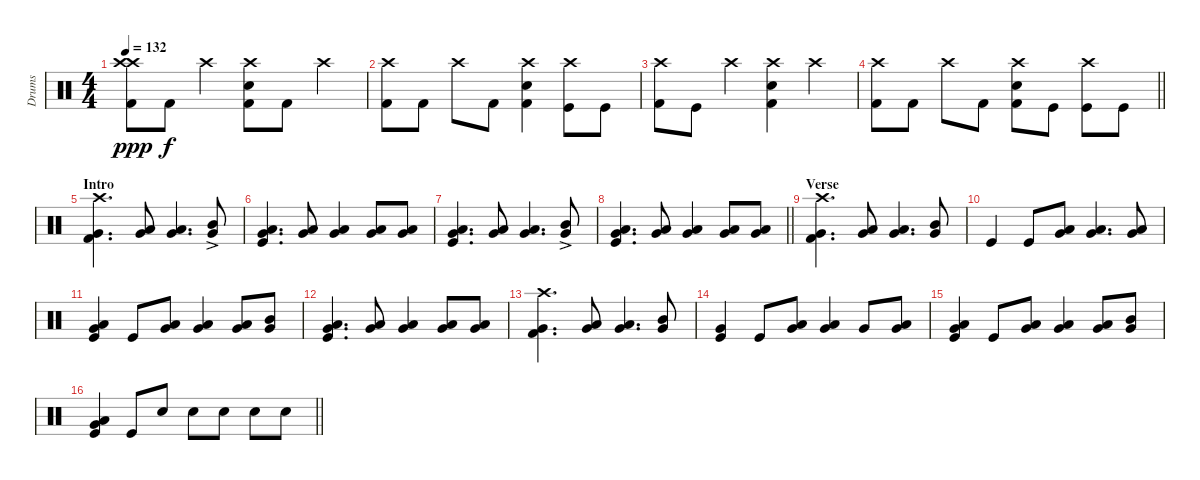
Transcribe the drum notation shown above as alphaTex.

\track ("Drums" "Drums") {instrument percussion}
\staff {score}
\articulation defaults
\ts (4 4)
\tempo 132
\clef neutral
\ks c
("Crash high (hit)" "Crash high (hit)" "Kick (hit) 2").8{dy ppp} "Kick (hit) 2".8{dy f} "Crash high (hit)".4 ("Crash high (hit)" "Electric Snare (hit)" "Kick (hit) 2").8 "Kick (hit) 2".8 "Crash high (hit)".4 |
("Crash high (hit)" "Kick (hit) 2").8 "Kick (hit) 2".8 "Crash high (hit)".8 "Kick (hit) 2".8 ("Crash high (hit)" "Electric Snare (hit)" "Kick (hit) 2").4 ("Crash high (hit)" "Kick (hit)").8 "Kick (hit)".8 |
("Crash high (hit)" "Kick (hit) 2").8 "Kick (hit)".8 "Crash high (hit)".4 ("Crash high (hit)" "Electric Snare (hit)" "Kick (hit) 2").4 "Crash high (hit)".4 |
\barLineRight lightlight
("Crash high (hit)" "Kick (hit) 2").8 "Kick (hit) 2".8 "Crash high (hit)".8 "Kick (hit) 2".8 ("Crash high (hit)" "Electric Snare (hit)" "Kick (hit) 2").8 "Kick (hit)".8 ("Kick (hit)" "Crash high (hit)").8 "Kick (hit)".8 |
\section ("" "Intro")
("Crash high (hit)" "Very Low Tom (hit)" "Kick (hit) 2").4{d} ("Very Low Tom (hit)" "Low Tom (hit)").8 ("Low Tom (hit)" "Very Low Tom (hit)").4{d} ("Very Low Tom (hit)"{ac} "Mid Tom (hit)"{ac}).8 |
("Very Low Tom (hit)" "Low Tom (hit)" "Kick (hit)").4{d} ("Very Low Tom (hit)" "Low Tom (hit)").8 ("Low Tom (hit)" "Very Low Tom (hit)").4 ("Very Low Tom (hit)" "Low Tom (hit)").8 ("Low Tom (hit)" "Very Low Tom (hit)").8 |
("Very Low Tom (hit)" "Low Tom (hit)" "Kick (hit)").4{d} ("Very Low Tom (hit)" "Low Tom (hit)").8 ("Low Tom (hit)" "Very Low Tom (hit)").4{d} ("Mid Tom (hit)"{ac} "Very Low Tom (hit)"{ac}).8 |
\barLineRight lightlight
("Very Low Tom (hit)" "Low Tom (hit)" "Kick (hit)").4{d} ("Very Low Tom (hit)" "Low Tom (hit)").8 ("Low Tom (hit)" "Very Low Tom (hit)").4 ("Very Low Tom (hit)" "Low Tom (hit)").8 ("Low Tom (hit)" "Very Low Tom (hit)").8 |
\section ("" "Verse")
("Crash high (hit)" "Very Low Tom (hit)" "Kick (hit) 2").4{d} ("Very Low Tom (hit)" "Low Tom (hit)").8 ("Low Tom (hit)" "Very Low Tom (hit)").4{d} ("Very Low Tom (hit)" "Mid Tom (hit)").8 |
"Kick (hit)".4 "Kick (hit)".8 ("Very Low Tom (hit)" "Low Tom (hit)").8 ("Low Tom (hit)" "Very Low Tom (hit)").4{d} ("Low Tom (hit)" "Very Low Tom (hit)").8 |
("Very Low Tom (hit)" "Low Tom (hit)" "Kick (hit)").4 "Kick (hit)".8 ("Very Low Tom (hit)" "Low Tom (hit)").8 ("Low Tom (hit)" "Very Low Tom (hit)").4 ("Very Low Tom (hit)" "Low Tom (hit)").8 ("Mid Tom (hit)" "Very Low Tom (hit)").8 |
("Very Low Tom (hit)" "Low Tom (hit)" "Kick (hit)").4{d} ("Very Low Tom (hit)" "Low Tom (hit)").8 ("Low Tom (hit)" "Very Low Tom (hit)").4 ("Low Tom (hit)" "Very Low Tom (hit)").8 ("Low Tom (hit)" "Very Low Tom (hit)").8 |
("Crash high (hit)" "Very Low Tom (hit)" "Kick (hit) 2").4{d} ("Very Low Tom (hit)" "Low Tom (hit)").8 ("Low Tom (hit)" "Very Low Tom (hit)").4{d} ("Very Low Tom (hit)" "Mid Tom (hit)").8 |
("Very Low Tom (hit)" "Kick (hit)").4 "Kick (hit)".8 ("Very Low Tom (hit)" "Low Tom (hit)").8 ("Low Tom (hit)" "Very Low Tom (hit)").4 "Very Low Tom (hit)".8 ("Low Tom (hit)" "Very Low Tom (hit)").8 |
("Very Low Tom (hit)" "Low Tom (hit)" "Kick (hit)").4 "Kick (hit)".8 ("Very Low Tom (hit)" "Low Tom (hit)").8 ("Low Tom (hit)" "Very Low Tom (hit)").4 ("Very Low Tom (hit)" "Low Tom (hit)").8 ("Mid Tom (hit)" "Very Low Tom (hit)").8 |
\barLineRight lightlight
("Very Low Tom (hit)" "Low Tom (hit)" "Kick (hit)").4 "Kick (hit)".8{volume 10} "Snare (hit) 2".8{volume 16} "Snare (hit) 2".8 "Snare (hit) 2".8 "Snare (hit) 2".8 "Snare (hit) 2".8
